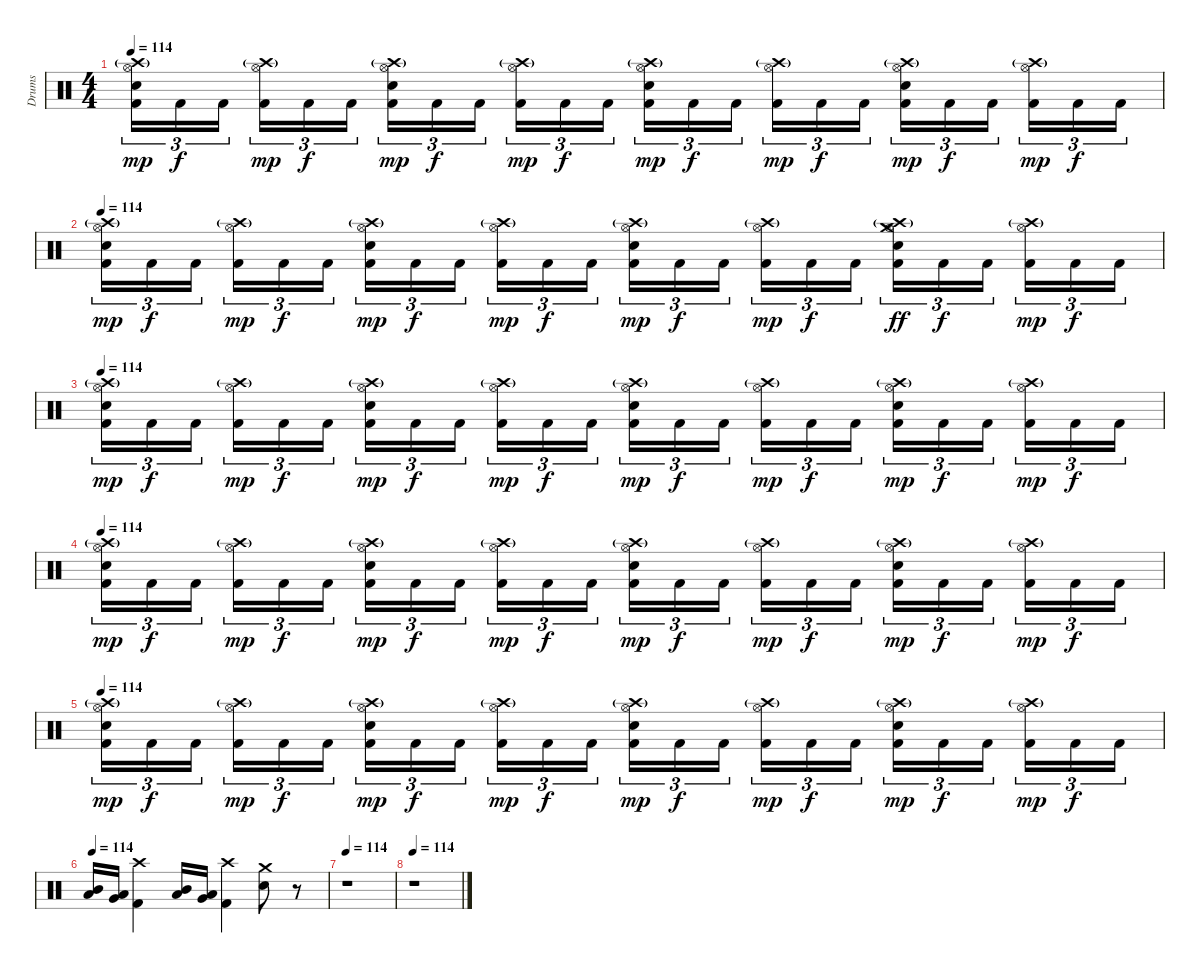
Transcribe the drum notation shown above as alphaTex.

\track ("Drums" "Drums") {instrument percussion}
\staff {score}
\articulation defaults
\ts (4 4)
\tempo 114
\clef neutral
\ks c
("Kick (hit) 2" "Electric Snare (hit)" "Hi-Hat (open)" "Crash high (hit)"{g}).16{tu (3 2) dy mp} "Kick (hit) 2".16{tu (3 2) dy f} "Kick (hit) 2".16{tu (3 2)} ("Kick (hit) 2" "Hi-Hat (open)" "Crash high (hit)"{g}).16{tu (3 2) dy mp} "Kick (hit) 2".16{tu (3 2) dy f} "Kick (hit) 2".16{tu (3 2)} ("Kick (hit) 2" "Electric Snare (hit)" "Hi-Hat (open)" "Crash high (hit)"{g}).16{tu (3 2) dy mp} "Kick (hit) 2".16{tu (3 2) dy f} "Kick (hit) 2".16{tu (3 2)} ("Kick (hit) 2" "Hi-Hat (open)" "Crash high (hit)"{g}).16{tu (3 2) dy mp} "Kick (hit) 2".16{tu (3 2) dy f} "Kick (hit) 2".16{tu (3 2)} ("Kick (hit) 2" "Electric Snare (hit)" "Hi-Hat (open)" "Crash high (hit)"{g}).16{tu (3 2) dy mp} "Kick (hit) 2".16{tu (3 2) dy f} "Kick (hit) 2".16{tu (3 2)} ("Kick (hit) 2" "Hi-Hat (open)" "Crash high (hit)"{g}).16{tu (3 2) dy mp} "Kick (hit) 2".16{tu (3 2) dy f} "Kick (hit) 2".16{tu (3 2)} ("Kick (hit) 2" "Electric Snare (hit)" "Hi-Hat (open)" "Crash high (hit)"{g}).16{tu (3 2) dy mp} "Kick (hit) 2".16{tu (3 2) dy f} "Kick (hit) 2".16{tu (3 2)} ("Kick (hit) 2" "Hi-Hat (open)" "Crash high (hit)"{g}).16{tu (3 2) dy mp} "Kick (hit) 2".16{tu (3 2) dy f} "Kick (hit) 2".16{tu (3 2)} |
\tempo 114
("Kick (hit) 2" "Electric Snare (hit)" "Hi-Hat (open)" "Crash high (hit)"{g}).16{tu (3 2) dy mp} "Kick (hit) 2".16{tu (3 2) dy f} "Kick (hit) 2".16{tu (3 2)} ("Kick (hit) 2" "Hi-Hat (open)" "Crash high (hit)"{g}).16{tu (3 2) dy mp} "Kick (hit) 2".16{tu (3 2) dy f} "Kick (hit) 2".16{tu (3 2)} ("Kick (hit) 2" "Electric Snare (hit)" "Hi-Hat (open)" "Crash high (hit)"{g}).16{tu (3 2) dy mp} "Kick (hit) 2".16{tu (3 2) dy f} "Kick (hit) 2".16{tu (3 2)} ("Kick (hit) 2" "Hi-Hat (open)" "Crash high (hit)"{g}).16{tu (3 2) dy mp} "Kick (hit) 2".16{tu (3 2) dy f} "Kick (hit) 2".16{tu (3 2)} ("Kick (hit) 2" "Electric Snare (hit)" "Hi-Hat (open)" "Crash high (hit)"{g}).16{tu (3 2) dy mp} "Kick (hit) 2".16{tu (3 2) dy f} "Kick (hit) 2".16{tu (3 2)} ("Kick (hit) 2" "Hi-Hat (open)" "Crash high (hit)"{g}).16{tu (3 2) dy mp} "Kick (hit) 2".16{tu (3 2) dy f} "Kick (hit) 2".16{tu (3 2)} ("Kick (hit) 2" "Electric Snare (hit)" "Hi-Hat (open)" "Crash high (hit)"{g} "Crash medium (hit)").16{tu (3 2) dy ff} "Kick (hit) 2".16{tu (3 2) dy f} "Kick (hit) 2".16{tu (3 2)} ("Kick (hit) 2" "Hi-Hat (open)" "Crash high (hit)"{g}).16{tu (3 2) dy mp} "Kick (hit) 2".16{tu (3 2) dy f} "Kick (hit) 2".16{tu (3 2)} |
\tempo 114
("Kick (hit) 2" "Electric Snare (hit)" "Hi-Hat (open)" "Crash high (hit)"{g}).16{tu (3 2) dy mp} "Kick (hit) 2".16{tu (3 2) dy f} "Kick (hit) 2".16{tu (3 2)} ("Kick (hit) 2" "Hi-Hat (open)" "Crash high (hit)"{g}).16{tu (3 2) dy mp} "Kick (hit) 2".16{tu (3 2) dy f} "Kick (hit) 2".16{tu (3 2)} ("Kick (hit) 2" "Electric Snare (hit)" "Hi-Hat (open)" "Crash high (hit)"{g}).16{tu (3 2) dy mp} "Kick (hit) 2".16{tu (3 2) dy f} "Kick (hit) 2".16{tu (3 2)} ("Kick (hit) 2" "Hi-Hat (open)" "Crash high (hit)"{g}).16{tu (3 2) dy mp} "Kick (hit) 2".16{tu (3 2) dy f} "Kick (hit) 2".16{tu (3 2)} ("Kick (hit) 2" "Electric Snare (hit)" "Hi-Hat (open)" "Crash high (hit)"{g}).16{tu (3 2) dy mp} "Kick (hit) 2".16{tu (3 2) dy f} "Kick (hit) 2".16{tu (3 2)} ("Kick (hit) 2" "Hi-Hat (open)" "Crash high (hit)"{g}).16{tu (3 2) dy mp} "Kick (hit) 2".16{tu (3 2) dy f} "Kick (hit) 2".16{tu (3 2)} ("Kick (hit) 2" "Electric Snare (hit)" "Hi-Hat (open)" "Crash high (hit)"{g}).16{tu (3 2) dy mp} "Kick (hit) 2".16{tu (3 2) dy f} "Kick (hit) 2".16{tu (3 2)} ("Kick (hit) 2" "Hi-Hat (open)" "Crash high (hit)"{g}).16{tu (3 2) dy mp} "Kick (hit) 2".16{tu (3 2) dy f} "Kick (hit) 2".16{tu (3 2)} |
\tempo 114
("Kick (hit) 2" "Electric Snare (hit)" "Hi-Hat (open)" "Crash high (hit)"{g}).16{tu (3 2) dy mp} "Kick (hit) 2".16{tu (3 2) dy f} "Kick (hit) 2".16{tu (3 2)} ("Kick (hit) 2" "Hi-Hat (open)" "Crash high (hit)"{g}).16{tu (3 2) dy mp} "Kick (hit) 2".16{tu (3 2) dy f} "Kick (hit) 2".16{tu (3 2)} ("Kick (hit) 2" "Electric Snare (hit)" "Hi-Hat (open)" "Crash high (hit)"{g}).16{tu (3 2) dy mp} "Kick (hit) 2".16{tu (3 2) dy f} "Kick (hit) 2".16{tu (3 2)} ("Kick (hit) 2" "Hi-Hat (open)" "Crash high (hit)"{g}).16{tu (3 2) dy mp} "Kick (hit) 2".16{tu (3 2) dy f} "Kick (hit) 2".16{tu (3 2)} ("Kick (hit) 2" "Electric Snare (hit)" "Hi-Hat (open)" "Crash high (hit)"{g}).16{tu (3 2) dy mp} "Kick (hit) 2".16{tu (3 2) dy f} "Kick (hit) 2".16{tu (3 2)} ("Kick (hit) 2" "Hi-Hat (open)" "Crash high (hit)"{g}).16{tu (3 2) dy mp} "Kick (hit) 2".16{tu (3 2) dy f} "Kick (hit) 2".16{tu (3 2)} ("Kick (hit) 2" "Electric Snare (hit)" "Hi-Hat (open)" "Crash high (hit)"{g}).16{tu (3 2) dy mp} "Kick (hit) 2".16{tu (3 2) dy f} "Kick (hit) 2".16{tu (3 2)} ("Kick (hit) 2" "Hi-Hat (open)" "Crash high (hit)"{g}).16{tu (3 2) dy mp} "Kick (hit) 2".16{tu (3 2) dy f} "Kick (hit) 2".16{tu (3 2)} |
\tempo 114
("Kick (hit) 2" "Electric Snare (hit)" "Hi-Hat (open)" "Crash high (hit)"{g}).16{tu (3 2) dy mp} "Kick (hit) 2".16{tu (3 2) dy f} "Kick (hit) 2".16{tu (3 2)} ("Kick (hit) 2" "Hi-Hat (open)" "Crash high (hit)"{g}).16{tu (3 2) dy mp} "Kick (hit) 2".16{tu (3 2) dy f} "Kick (hit) 2".16{tu (3 2)} ("Kick (hit) 2" "Electric Snare (hit)" "Hi-Hat (open)" "Crash high (hit)"{g}).16{tu (3 2) dy mp} "Kick (hit) 2".16{tu (3 2) dy f} "Kick (hit) 2".16{tu (3 2)} ("Kick (hit) 2" "Hi-Hat (open)" "Crash high (hit)"{g}).16{tu (3 2) dy mp} "Kick (hit) 2".16{tu (3 2) dy f} "Kick (hit) 2".16{tu (3 2)} ("Kick (hit) 2" "Electric Snare (hit)" "Hi-Hat (open)" "Crash high (hit)"{g}).16{tu (3 2) dy mp} "Kick (hit) 2".16{tu (3 2) dy f} "Kick (hit) 2".16{tu (3 2)} ("Kick (hit) 2" "Hi-Hat (open)" "Crash high (hit)"{g}).16{tu (3 2) dy mp} "Kick (hit) 2".16{tu (3 2) dy f} "Kick (hit) 2".16{tu (3 2)} ("Kick (hit) 2" "Electric Snare (hit)" "Hi-Hat (open)" "Crash high (hit)"{g}).16{tu (3 2) dy mp} "Kick (hit) 2".16{tu (3 2) dy f} "Kick (hit) 2".16{tu (3 2)} ("Kick (hit) 2" "Hi-Hat (open)" "Crash high (hit)"{g}).16{tu (3 2) dy mp} "Kick (hit) 2".16{tu (3 2) dy f} "Kick (hit) 2".16{tu (3 2)} |
\tempo 114
("Mid Tom (hit)" "Low Tom (hit)").16 ("Low Tom (hit)" "Very Low Tom (hit)").16 ("Kick (hit) 2" "Crash high (hit)").4 ("Mid Tom (hit)" "Low Tom (hit)").16 ("Low Tom (hit)" "Very Low Tom (hit)").16 ("Kick (hit) 2" "Crash high (hit)").4 ("Electric Snare (hit)" "Crash medium (hit)").8 r.8 |
\tempo 114
r.1 |
\tempo 114
r.1
